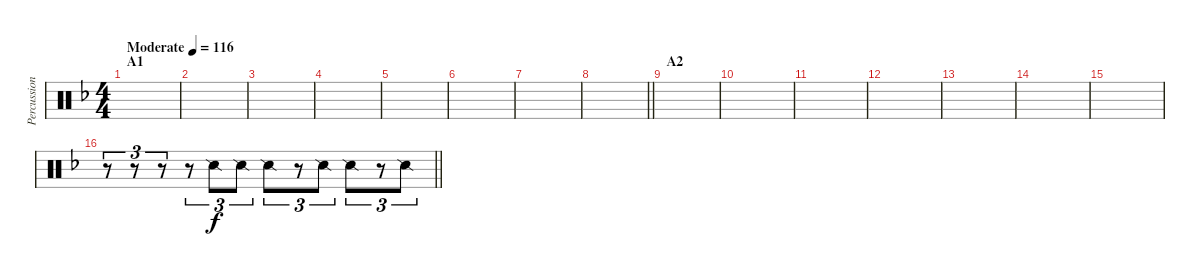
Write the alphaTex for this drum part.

\track ("Percussion" "Percussion") {instrument percussion}
\staff {score}
\articulation defaults
\ts (4 4)
\section ("" "A1")
\tempo (116 "Moderate")
\clef neutral
\ks f
|
|
|
|
|
|
|
\barLineRight lightlight
|
\section ("" "A2")
|
|
|
|
|
|
|
\barLineRight lightlight
r.8{tu (3 2)} r.8{tu (3 2)} r.8{tu (3 2)} r.8{tu (3 2)} "Snare (side stick) 2".8{tu (3 2)} "Snare (side stick) 2".8{tu (3 2)} "Snare (side stick) 2".8{tu (3 2)} r.8{tu (3 2)} "Snare (side stick) 2".8{tu (3 2)} "Snare (side stick) 2".8{tu (3 2)} r.8{tu (3 2)} "Snare (side stick) 2".8{tu (3 2)}
